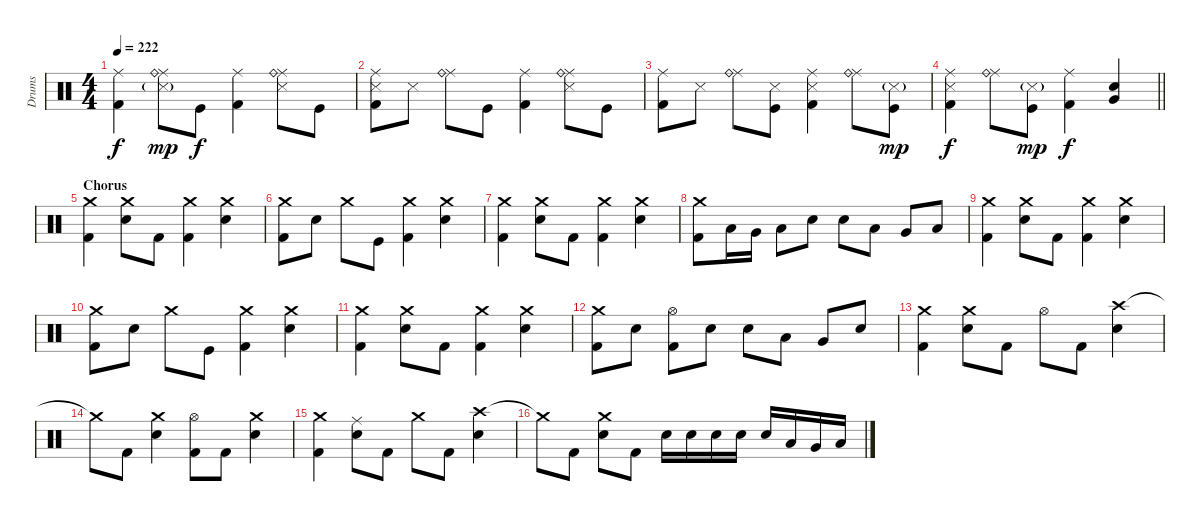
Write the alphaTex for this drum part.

\track ("Drums" "Drums") {instrument percussion}
\staff {score}
\articulation defaults
\ts (4 4)
\tempo 222
\clef neutral
\ks c
("Ride (middle)" "Kick (hit) 2").4{dy f} ("Ride (middle)" "Ride (bell)" "Snare (side stick) 3"{g}).8{dy mp} "Kick (hit)".8{dy f} ("Ride (middle)" "Kick (hit) 2").4 ("Ride (middle)" "Ride (bell)" "Snare (side stick) 3").8 "Kick (hit)".8 |
("Ride (middle)" "Snare (side stick) 3" "Kick (hit) 2").8 "Snare (side stick) 3".8 ("Ride (middle)" "Ride (bell)").8 "Kick (hit)".8 ("Ride (middle)" "Kick (hit) 2").4 ("Ride (middle)" "Ride (bell)" "Snare (side stick) 3").8 "Kick (hit)".8 |
("Ride (middle)" "Kick (hit) 2").8 "Snare (side stick) 3".8 ("Ride (middle)" "Ride (bell)").8 ("Snare (side stick) 3" "Kick (hit)").8 ("Ride (middle)" "Snare (side stick) 3" "Kick (hit) 2").4 ("Ride (middle)" "Ride (bell)").8 ("Snare (side stick) 3"{g} "Kick (hit)").8{dy mp} |
\barLineRight lightlight
("Ride (middle)" "Snare (side stick) 3" "Kick (hit) 2").4{dy f} ("Ride (middle)" "Ride (bell)").8 ("Snare (side stick) 3"{g} "Kick (hit)").8{dy mp} ("Ride (middle)" "Kick (hit) 2").4{dy f} ("Very Low Tom (hit)" "Electric Snare (hit)").4 |
\section ("" "Chorus")
("Crash medium (hit)" "Kick (hit) 2").4 ("Crash medium (hit)" "Electric Snare (hit)").8 "Kick (hit) 2".8 ("Crash medium (hit)" "Kick (hit) 2").4 ("Crash medium (hit)" "Electric Snare (hit)").4 |
("Crash medium (hit)" "Kick (hit) 2").8 "Electric Snare (hit)".8 "Crash medium (hit)".8 "Kick (hit)".8 ("Crash medium (hit)" "Kick (hit) 2").4 ("Crash medium (hit)" "Electric Snare (hit)").4 |
("Crash medium (hit)" "Kick (hit) 2").4 ("Crash medium (hit)" "Electric Snare (hit)").8 "Kick (hit) 2".8 ("Crash medium (hit)" "Kick (hit) 2").4 ("Crash medium (hit)" "Electric Snare (hit)").4 |
("Crash medium (hit)" "Kick (hit) 2").8 "Low Tom (hit)".16 "Very Low Tom (hit)".16 "Low Floor Tom (hit)".8 "Electric Snare (hit)".8 "Electric Snare (hit)".8 "Low Tom (hit)".8 "Very Low Tom (hit)".8 "Low Floor Tom (hit)".8 |
("Crash medium (hit)" "Kick (hit) 2").4 ("Crash medium (hit)" "Electric Snare (hit)").8 "Kick (hit) 2".8 ("Crash medium (hit)" "Kick (hit) 2").4 ("Crash medium (hit)" "Electric Snare (hit)").4 |
("Crash medium (hit)" "Kick (hit) 2").8 "Electric Snare (hit)".8 "Crash medium (hit)".8 "Kick (hit)".8 ("Crash medium (hit)" "Kick (hit) 2").4 ("Crash medium (hit)" "Electric Snare (hit)").4 |
("Crash medium (hit)" "Kick (hit) 2").4 ("Crash medium (hit)" "Electric Snare (hit)").8 "Kick (hit) 2".8 ("Crash medium (hit)" "Kick (hit) 2").4 ("Crash medium (hit)" "Electric Snare (hit)").4 |
("Crash medium (hit)" "Kick (hit) 2").8 "Electric Snare (hit)".8 ("Hi-Hat (open)" "Kick (hit) 2").8 "Electric Snare (hit)".8 "Electric Snare (hit)".8 "Low Tom (hit)".8 "Very Low Tom (hit)".8 "Electric Snare (hit)".8 |
("Crash medium (hit)" "Kick (hit) 2").4 ("Crash medium (hit)" "Electric Snare (hit)").8 "Kick (hit) 2".8 "Hi-Hat (open)".8 "Kick (hit) 2".8 ("Crash high (hit)" "Electric Snare (hit)").4 |
"Crash medium (hit)"{t}.8 "Kick (hit) 2".8 ("Crash medium (hit)" "Electric Snare (hit)").4 ("Hi-Hat (open)" "Kick (hit) 2").8 "Kick (hit) 2".8 ("Crash medium (hit)" "Electric Snare (hit)").4 |
("Crash medium (hit)" "Kick (hit) 2").4 ("Ride (middle)" "Electric Snare (hit)").8 "Kick (hit) 2".8 "Crash medium (hit)".8 "Kick (hit) 2".8 ("Crash high (hit)" "Electric Snare (hit)").4 |
"Crash medium (hit)"{t}.8 "Kick (hit) 2".8 ("Crash medium (hit)" "Electric Snare (hit)").8 "Kick (hit) 2".8 "Electric Snare (hit)".16 "Electric Snare (hit)".16 "Electric Snare (hit)".16 "Electric Snare (hit)".16 "Electric Snare (hit)".16 "Low Tom (hit)".16 "Very Low Tom (hit)".16 "Low Floor Tom (hit)".16
